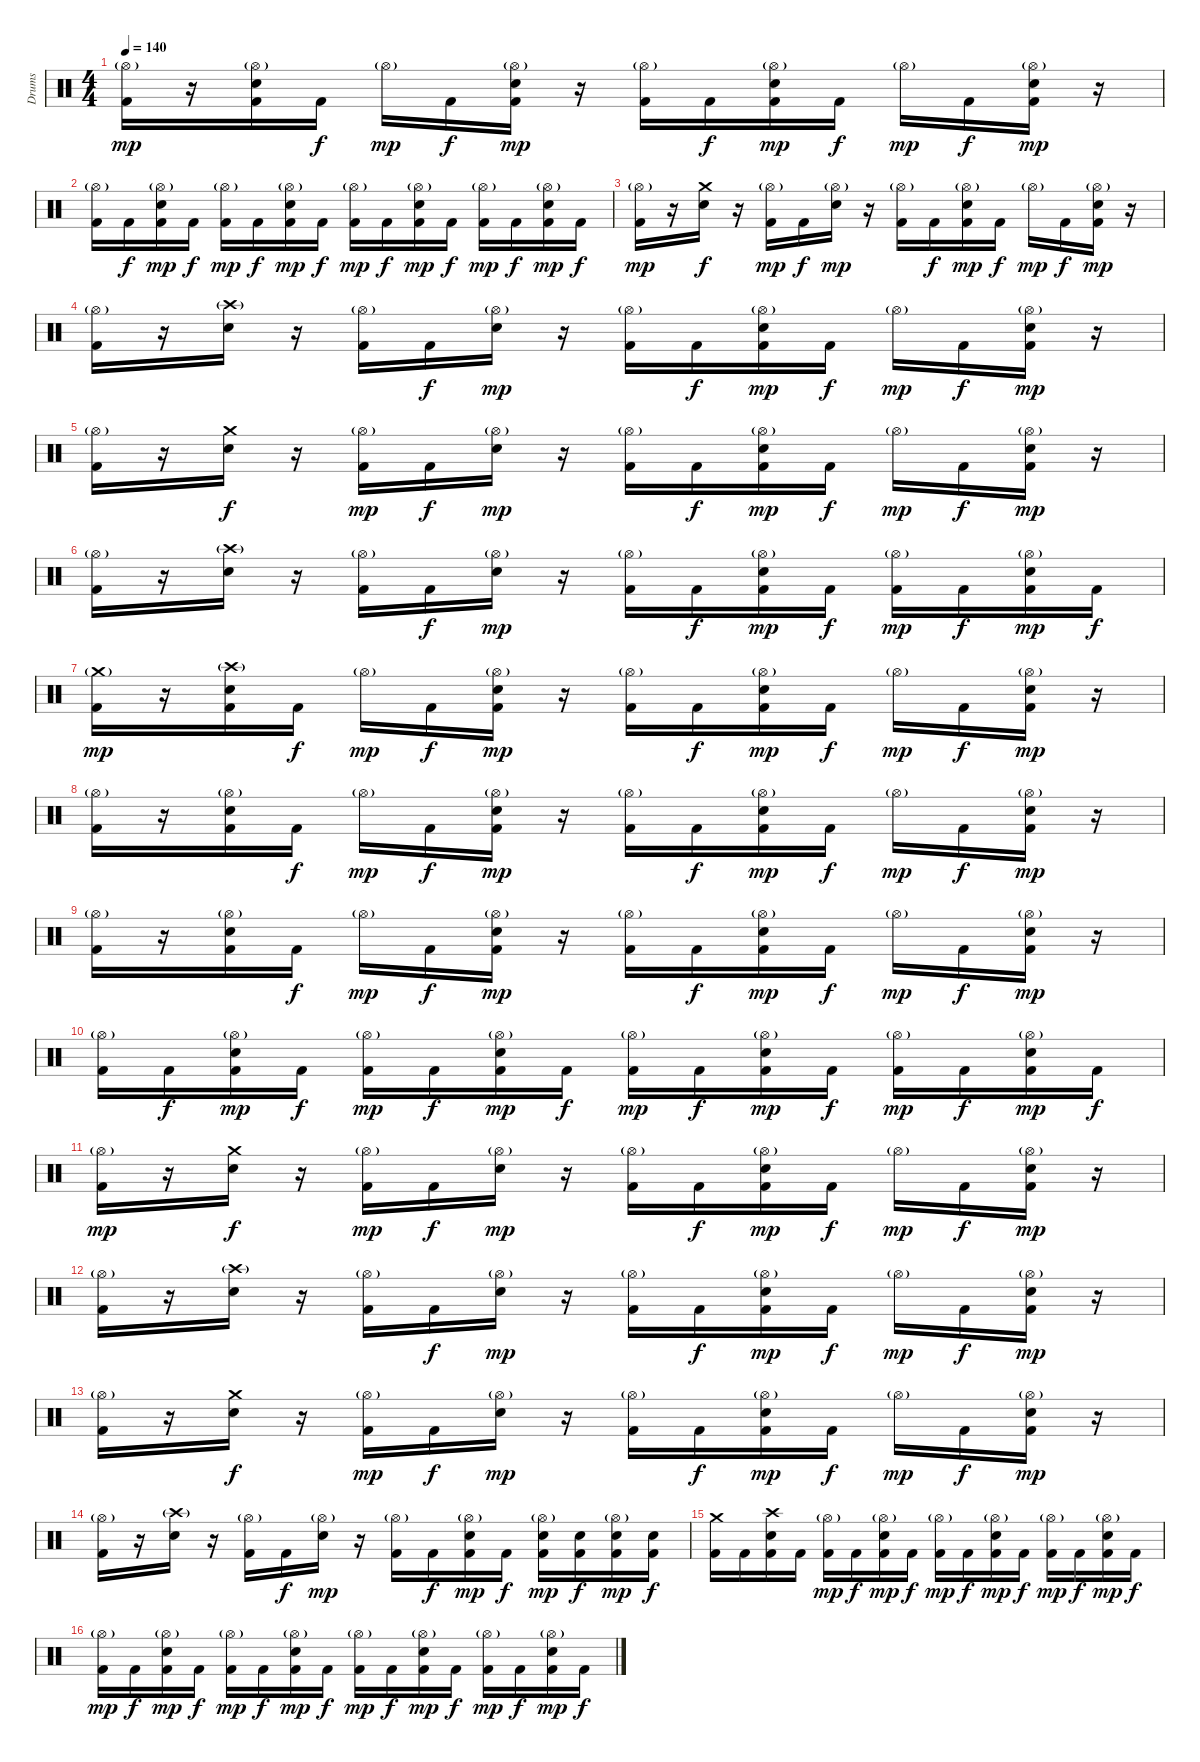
\track ("Drums" "Drums") {instrument percussion}
\staff {score}
\articulation defaults
\ts (4 4)
\tempo 140
\clef neutral
\ks c
("Hi-Hat (open)"{g} "Kick (hit) 2").16{dy mp} r.16 ("Hi-Hat (open)"{g} "Electric Snare (hit)" "Kick (hit) 2").16 "Kick (hit) 2".16{dy f} "Hi-Hat (open)"{g}.16{dy mp} "Kick (hit) 2".16{dy f} ("Hi-Hat (open)"{g} "Electric Snare (hit)" "Kick (hit) 2").16{dy mp} r.16 ("Hi-Hat (open)"{g} "Kick (hit) 2").16 "Kick (hit) 2".16{dy f} ("Hi-Hat (open)"{g} "Electric Snare (hit)" "Kick (hit) 2").16{dy mp} "Kick (hit) 2".16{dy f} "Hi-Hat (open)"{g}.16{dy mp} "Kick (hit) 2".16{dy f} ("Hi-Hat (open)"{g} "Electric Snare (hit)" "Kick (hit) 2").16{dy mp} r.16 |
("Hi-Hat (open)"{g} "Kick (hit) 2").16 "Kick (hit) 2".16{dy f} ("Hi-Hat (open)"{g} "Electric Snare (hit)" "Kick (hit) 2").16{dy mp} "Kick (hit) 2".16{dy f} ("Hi-Hat (open)"{g} "Kick (hit) 2").16{dy mp} "Kick (hit) 2".16{dy f} ("Hi-Hat (open)"{g} "Electric Snare (hit)" "Kick (hit) 2").16{dy mp} "Kick (hit) 2".16{dy f} ("Hi-Hat (open)"{g} "Kick (hit) 2").16{dy mp} "Kick (hit) 2".16{dy f} ("Hi-Hat (open)"{g} "Electric Snare (hit)" "Kick (hit) 2").16{dy mp} "Kick (hit) 2".16{dy f} ("Hi-Hat (open)"{g} "Kick (hit) 2").16{dy mp} "Kick (hit) 2".16{dy f} ("Hi-Hat (open)"{g} "Electric Snare (hit)" "Kick (hit) 2").16{dy mp} "Kick (hit) 2".16{dy f} |
("Hi-Hat (open)"{g} "Kick (hit) 2").16{dy mp} r.16 ("Crash medium (hit)" "Electric Snare (hit)").16{dy f} r.16 ("Hi-Hat (open)"{g} "Kick (hit) 2").16{dy mp} "Kick (hit) 2".16{dy f} ("Hi-Hat (open)"{g} "Electric Snare (hit)").16{dy mp} r.16 ("Hi-Hat (open)"{g} "Kick (hit) 2").16 "Kick (hit) 2".16{dy f} ("Hi-Hat (open)"{g} "Electric Snare (hit)" "Kick (hit) 2").16{dy mp} "Kick (hit) 2".16{dy f} "Hi-Hat (open)"{g}.16{dy mp} "Kick (hit) 2".16{dy f} ("Hi-Hat (open)"{g} "Electric Snare (hit)" "Kick (hit) 2").16{dy mp} r.16 |
("Hi-Hat (open)"{g} "Kick (hit) 2").16 r.16 ("Crash high (hit)"{g} "Electric Snare (hit)").16 r.16 ("Hi-Hat (open)"{g} "Kick (hit) 2").16 "Kick (hit) 2".16{dy f} ("Hi-Hat (open)"{g} "Electric Snare (hit)").16{dy mp} r.16 ("Hi-Hat (open)"{g} "Kick (hit) 2").16 "Kick (hit) 2".16{dy f} ("Hi-Hat (open)"{g} "Electric Snare (hit)" "Kick (hit) 2").16{dy mp} "Kick (hit) 2".16{dy f} "Hi-Hat (open)"{g}.16{dy mp} "Kick (hit) 2".16{dy f} ("Hi-Hat (open)"{g} "Electric Snare (hit)" "Kick (hit) 2").16{dy mp} r.16 |
("Hi-Hat (open)"{g} "Kick (hit) 2").16 r.16 ("Crash medium (hit)" "Electric Snare (hit)").16{dy f} r.16 ("Hi-Hat (open)"{g} "Kick (hit) 2").16{dy mp} "Kick (hit) 2".16{dy f} ("Hi-Hat (open)"{g} "Electric Snare (hit)").16{dy mp} r.16 ("Hi-Hat (open)"{g} "Kick (hit) 2").16 "Kick (hit) 2".16{dy f} ("Hi-Hat (open)"{g} "Electric Snare (hit)" "Kick (hit) 2").16{dy mp} "Kick (hit) 2".16{dy f} "Hi-Hat (open)"{g}.16{dy mp} "Kick (hit) 2".16{dy f} ("Hi-Hat (open)"{g} "Electric Snare (hit)" "Kick (hit) 2").16{dy mp} r.16 |
("Hi-Hat (open)"{g} "Kick (hit) 2").16 r.16 ("Crash high (hit)"{g} "Electric Snare (hit)").16 r.16 ("Hi-Hat (open)"{g} "Kick (hit) 2").16 "Kick (hit) 2".16{dy f} ("Hi-Hat (open)"{g} "Electric Snare (hit)").16{dy mp} r.16 ("Hi-Hat (open)"{g} "Kick (hit) 2").16 "Kick (hit) 2".16{dy f} ("Hi-Hat (open)"{g} "Electric Snare (hit)" "Kick (hit) 2").16{dy mp} "Kick (hit) 2".16{dy f} ("Hi-Hat (open)"{g} "Kick (hit) 2").16{dy mp} "Kick (hit) 2".16{dy f} ("Hi-Hat (open)"{g} "Electric Snare (hit)" "Kick (hit) 2").16{dy mp} "Kick (hit) 2".16{dy f} |
("Crash medium (hit)"{g} "Kick (hit) 2").16{dy mp} r.16 ("Crash high (hit)"{g} "Electric Snare (hit)" "Kick (hit) 2").16 "Kick (hit) 2".16{dy f} "Hi-Hat (open)"{g}.16{dy mp} "Kick (hit) 2".16{dy f} ("Hi-Hat (open)"{g} "Electric Snare (hit)" "Kick (hit) 2").16{dy mp} r.16 ("Hi-Hat (open)"{g} "Kick (hit) 2").16 "Kick (hit) 2".16{dy f} ("Hi-Hat (open)"{g} "Electric Snare (hit)" "Kick (hit) 2").16{dy mp} "Kick (hit) 2".16{dy f} "Hi-Hat (open)"{g}.16{dy mp} "Kick (hit) 2".16{dy f} ("Hi-Hat (open)"{g} "Electric Snare (hit)" "Kick (hit) 2").16{dy mp} r.16 |
("Hi-Hat (open)"{g} "Kick (hit) 2").16 r.16 ("Hi-Hat (open)"{g} "Electric Snare (hit)" "Kick (hit) 2").16 "Kick (hit) 2".16{dy f} "Hi-Hat (open)"{g}.16{dy mp} "Kick (hit) 2".16{dy f} ("Hi-Hat (open)"{g} "Electric Snare (hit)" "Kick (hit) 2").16{dy mp} r.16 ("Hi-Hat (open)"{g} "Kick (hit) 2").16 "Kick (hit) 2".16{dy f} ("Hi-Hat (open)"{g} "Electric Snare (hit)" "Kick (hit) 2").16{dy mp} "Kick (hit) 2".16{dy f} "Hi-Hat (open)"{g}.16{dy mp} "Kick (hit) 2".16{dy f} ("Hi-Hat (open)"{g} "Electric Snare (hit)" "Kick (hit) 2").16{dy mp} r.16 |
("Hi-Hat (open)"{g} "Kick (hit) 2").16 r.16 ("Hi-Hat (open)"{g} "Electric Snare (hit)" "Kick (hit) 2").16 "Kick (hit) 2".16{dy f} "Hi-Hat (open)"{g}.16{dy mp} "Kick (hit) 2".16{dy f} ("Hi-Hat (open)"{g} "Electric Snare (hit)" "Kick (hit) 2").16{dy mp} r.16 ("Hi-Hat (open)"{g} "Kick (hit) 2").16 "Kick (hit) 2".16{dy f} ("Hi-Hat (open)"{g} "Electric Snare (hit)" "Kick (hit) 2").16{dy mp} "Kick (hit) 2".16{dy f} "Hi-Hat (open)"{g}.16{dy mp} "Kick (hit) 2".16{dy f} ("Hi-Hat (open)"{g} "Electric Snare (hit)" "Kick (hit) 2").16{dy mp} r.16 |
("Hi-Hat (open)"{g} "Kick (hit) 2").16 "Kick (hit) 2".16{dy f} ("Hi-Hat (open)"{g} "Electric Snare (hit)" "Kick (hit) 2").16{dy mp} "Kick (hit) 2".16{dy f} ("Hi-Hat (open)"{g} "Kick (hit) 2").16{dy mp} "Kick (hit) 2".16{dy f} ("Hi-Hat (open)"{g} "Electric Snare (hit)" "Kick (hit) 2").16{dy mp} "Kick (hit) 2".16{dy f} ("Hi-Hat (open)"{g} "Kick (hit) 2").16{dy mp} "Kick (hit) 2".16{dy f} ("Hi-Hat (open)"{g} "Electric Snare (hit)" "Kick (hit) 2").16{dy mp} "Kick (hit) 2".16{dy f} ("Hi-Hat (open)"{g} "Kick (hit) 2").16{dy mp} "Kick (hit) 2".16{dy f} ("Hi-Hat (open)"{g} "Electric Snare (hit)" "Kick (hit) 2").16{dy mp} "Kick (hit) 2".16{dy f} |
("Hi-Hat (open)"{g} "Kick (hit) 2").16{dy mp} r.16 ("Crash medium (hit)" "Electric Snare (hit)").16{dy f} r.16 ("Hi-Hat (open)"{g} "Kick (hit) 2").16{dy mp} "Kick (hit) 2".16{dy f} ("Hi-Hat (open)"{g} "Electric Snare (hit)").16{dy mp} r.16 ("Hi-Hat (open)"{g} "Kick (hit) 2").16 "Kick (hit) 2".16{dy f} ("Hi-Hat (open)"{g} "Electric Snare (hit)" "Kick (hit) 2").16{dy mp} "Kick (hit) 2".16{dy f} "Hi-Hat (open)"{g}.16{dy mp} "Kick (hit) 2".16{dy f} ("Hi-Hat (open)"{g} "Electric Snare (hit)" "Kick (hit) 2").16{dy mp} r.16 |
("Hi-Hat (open)"{g} "Kick (hit) 2").16 r.16 ("Crash high (hit)"{g} "Electric Snare (hit)").16 r.16 ("Hi-Hat (open)"{g} "Kick (hit) 2").16 "Kick (hit) 2".16{dy f} ("Hi-Hat (open)"{g} "Electric Snare (hit)").16{dy mp} r.16 ("Hi-Hat (open)"{g} "Kick (hit) 2").16 "Kick (hit) 2".16{dy f} ("Hi-Hat (open)"{g} "Electric Snare (hit)" "Kick (hit) 2").16{dy mp} "Kick (hit) 2".16{dy f} "Hi-Hat (open)"{g}.16{dy mp} "Kick (hit) 2".16{dy f} ("Hi-Hat (open)"{g} "Electric Snare (hit)" "Kick (hit) 2").16{dy mp} r.16 |
("Hi-Hat (open)"{g} "Kick (hit) 2").16 r.16 ("Crash medium (hit)" "Electric Snare (hit)").16{dy f} r.16 ("Hi-Hat (open)"{g} "Kick (hit) 2").16{dy mp} "Kick (hit) 2".16{dy f} ("Hi-Hat (open)"{g} "Electric Snare (hit)").16{dy mp} r.16 ("Hi-Hat (open)"{g} "Kick (hit) 2").16 "Kick (hit) 2".16{dy f} ("Hi-Hat (open)"{g} "Electric Snare (hit)" "Kick (hit) 2").16{dy mp} "Kick (hit) 2".16{dy f} "Hi-Hat (open)"{g}.16{dy mp} "Kick (hit) 2".16{dy f} ("Hi-Hat (open)"{g} "Electric Snare (hit)" "Kick (hit) 2").16{dy mp} r.16 |
("Hi-Hat (open)"{g} "Kick (hit) 2").16 r.16 ("Crash high (hit)"{g} "Electric Snare (hit)").16 r.16 ("Hi-Hat (open)"{g} "Kick (hit) 2").16 "Kick (hit) 2".16{dy f} ("Hi-Hat (open)"{g} "Electric Snare (hit)").16{dy mp} r.16 ("Hi-Hat (open)"{g} "Kick (hit) 2").16 "Kick (hit) 2".16{dy f} ("Hi-Hat (open)"{g} "Electric Snare (hit)" "Kick (hit) 2").16{dy mp} "Kick (hit) 2".16{dy f} ("Hi-Hat (open)"{g} "Electric Snare (hit)" "Kick (hit) 2").16{dy mp} ("Electric Snare (hit)" "Kick (hit) 2").16{dy f} ("Hi-Hat (open)"{g} "Electric Snare (hit)" "Kick (hit) 2").16{dy mp} ("Electric Snare (hit)" "Kick (hit) 2").16{dy f} |
("Crash medium (hit)" "Kick (hit) 2").16 "Kick (hit) 2".16 ("Crash high (hit)" "Electric Snare (hit)" "Kick (hit) 2").16 "Kick (hit) 2".16 ("Hi-Hat (open)"{g} "Kick (hit) 2").16{dy mp} "Kick (hit) 2".16{dy f} ("Hi-Hat (open)"{g} "Electric Snare (hit)" "Kick (hit) 2").16{dy mp} "Kick (hit) 2".16{dy f} ("Hi-Hat (open)"{g} "Kick (hit) 2").16{dy mp} "Kick (hit) 2".16{dy f} ("Hi-Hat (open)"{g} "Electric Snare (hit)" "Kick (hit) 2").16{dy mp} "Kick (hit) 2".16{dy f} ("Hi-Hat (open)"{g} "Kick (hit) 2").16{dy mp} "Kick (hit) 2".16{dy f} ("Hi-Hat (open)"{g} "Electric Snare (hit)" "Kick (hit) 2").16{dy mp} "Kick (hit) 2".16{dy f} |
("Hi-Hat (open)"{g} "Kick (hit) 2").16{dy mp} "Kick (hit) 2".16{dy f} ("Hi-Hat (open)"{g} "Electric Snare (hit)" "Kick (hit) 2").16{dy mp} "Kick (hit) 2".16{dy f} ("Hi-Hat (open)"{g} "Kick (hit) 2").16{dy mp} "Kick (hit) 2".16{dy f} ("Hi-Hat (open)"{g} "Electric Snare (hit)" "Kick (hit) 2").16{dy mp} "Kick (hit) 2".16{dy f} ("Hi-Hat (open)"{g} "Kick (hit) 2").16{dy mp} "Kick (hit) 2".16{dy f} ("Hi-Hat (open)"{g} "Electric Snare (hit)" "Kick (hit) 2").16{dy mp} "Kick (hit) 2".16{dy f} ("Hi-Hat (open)"{g} "Kick (hit) 2").16{dy mp} "Kick (hit) 2".16{dy f} ("Hi-Hat (open)"{g} "Electric Snare (hit)" "Kick (hit) 2").16{dy mp} "Kick (hit) 2".16{dy f}
